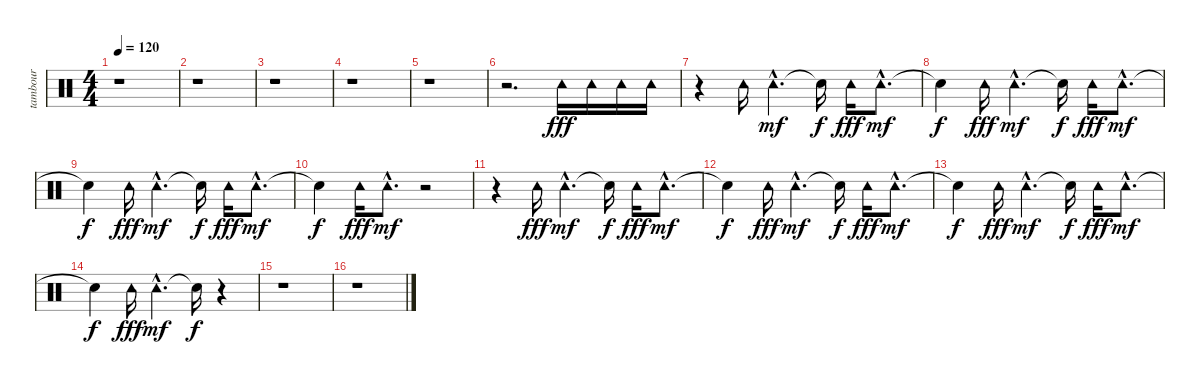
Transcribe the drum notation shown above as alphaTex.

\track ("tambour" "tambour") {instrument percussion}
\staff {score}
\articulation defaults
\ts (4 4)
\tempo 120
\clef neutral
\ks c
r.1{dy f} |
r.1 |
r.1 |
r.1 |
r.1 |
r.2{d} "Tambourine (hit)".16{dy fff} "Tambourine (hit)".16 "Tambourine (hit)".16 "Tambourine (hit)".16 |
r.4 "Tambourine (hit)".16 "Tambourine (hit)"{hac}.4{d dy mf} "Snare (hit)"{t}.16{dy f} "Tambourine (hit)".16{dy fff} "Tambourine (hit)"{hac}.8{d dy mf} |
"Snare (hit)"{t}.4{dy f} "Tambourine (hit)".16{dy fff} "Tambourine (hit)"{hac}.4{d dy mf} "Snare (hit)"{t}.16{dy f} "Tambourine (hit)".16{dy fff} "Tambourine (hit)"{hac}.8{d dy mf} |
"Snare (hit)"{t}.4{dy f} "Tambourine (hit)".16{dy fff} "Tambourine (hit)"{hac}.4{d dy mf} "Snare (hit)"{t}.16{dy f} "Tambourine (hit)".16{dy fff} "Tambourine (hit)"{hac}.8{d dy mf} |
"Snare (hit)"{t}.4{dy f} "Tambourine (hit)".16{dy fff} "Tambourine (hit)"{hac}.8{d dy mf} r.2 |
r.4 "Tambourine (hit)".16{dy fff} "Tambourine (hit)"{hac}.4{d dy mf} "Snare (hit)"{t}.16{dy f} "Tambourine (hit)".16{dy fff} "Tambourine (hit)"{hac}.8{d dy mf} |
"Snare (hit)"{t}.4{dy f} "Tambourine (hit)".16{dy fff} "Tambourine (hit)"{hac}.4{d dy mf} "Snare (hit)"{t}.16{dy f} "Tambourine (hit)".16{dy fff} "Tambourine (hit)"{hac}.8{d dy mf} |
"Snare (hit)"{t}.4{dy f} "Tambourine (hit)".16{dy fff} "Tambourine (hit)"{hac}.4{d dy mf} "Snare (hit)"{t}.16{dy f} "Tambourine (hit)".16{dy fff} "Tambourine (hit)"{hac}.8{d dy mf} |
"Snare (hit)"{t}.4{dy f} "Tambourine (hit)".16{dy fff} "Tambourine (hit)"{hac}.4{d dy mf} "Snare (hit)"{t}.16{dy f} r.4 |
r.1 |
r.1
